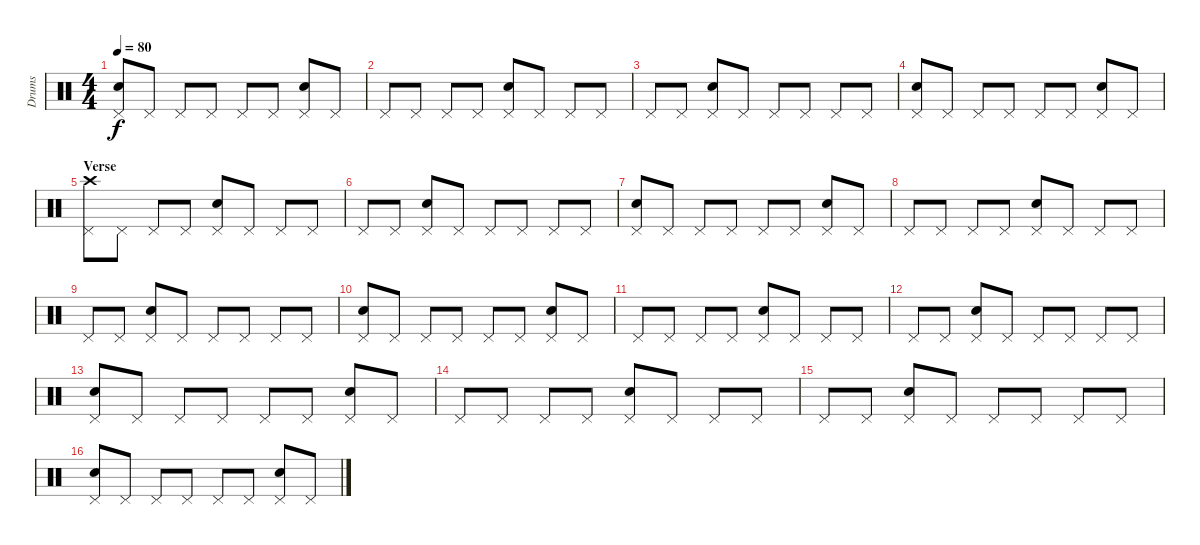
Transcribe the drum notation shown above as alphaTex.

\track ("Drums" "Drums") {instrument percussion}
\staff {score}
\articulation defaults
\ts (4 4)
\tempo 80
\clef neutral
\ks c
("Electric Snare (hit)" "Pedal Hi-Hat (hit)").8{dy f} "Pedal Hi-Hat (hit)".8 "Pedal Hi-Hat (hit)".8 "Pedal Hi-Hat (hit)".8 "Pedal Hi-Hat (hit)".8 "Pedal Hi-Hat (hit)".8 ("Electric Snare (hit)" "Pedal Hi-Hat (hit)").8 "Pedal Hi-Hat (hit)".8 |
"Pedal Hi-Hat (hit)".8 "Pedal Hi-Hat (hit)".8 "Pedal Hi-Hat (hit)".8 "Pedal Hi-Hat (hit)".8 ("Electric Snare (hit)" "Pedal Hi-Hat (hit)").8 "Pedal Hi-Hat (hit)".8 "Pedal Hi-Hat (hit)".8 "Pedal Hi-Hat (hit)".8 |
"Pedal Hi-Hat (hit)".8 "Pedal Hi-Hat (hit)".8 ("Electric Snare (hit)" "Pedal Hi-Hat (hit)").8 "Pedal Hi-Hat (hit)".8 "Pedal Hi-Hat (hit)".8 "Pedal Hi-Hat (hit)".8 "Pedal Hi-Hat (hit)".8 "Pedal Hi-Hat (hit)".8 |
("Electric Snare (hit)" "Pedal Hi-Hat (hit)").8 "Pedal Hi-Hat (hit)".8 "Pedal Hi-Hat (hit)".8 "Pedal Hi-Hat (hit)".8 "Pedal Hi-Hat (hit)".8 "Pedal Hi-Hat (hit)".8 ("Electric Snare (hit)" "Pedal Hi-Hat (hit)").8 "Pedal Hi-Hat (hit)".8 |
\section ("" "Verse")
("Crash high (hit)" "Pedal Hi-Hat (hit)").8 "Pedal Hi-Hat (hit)".8 "Pedal Hi-Hat (hit)".8 "Pedal Hi-Hat (hit)".8 ("Electric Snare (hit)" "Pedal Hi-Hat (hit)").8 "Pedal Hi-Hat (hit)".8 "Pedal Hi-Hat (hit)".8 "Pedal Hi-Hat (hit)".8 |
"Pedal Hi-Hat (hit)".8 "Pedal Hi-Hat (hit)".8 ("Electric Snare (hit)" "Pedal Hi-Hat (hit)").8 "Pedal Hi-Hat (hit)".8 "Pedal Hi-Hat (hit)".8 "Pedal Hi-Hat (hit)".8 "Pedal Hi-Hat (hit)".8 "Pedal Hi-Hat (hit)".8 |
("Electric Snare (hit)" "Pedal Hi-Hat (hit)").8 "Pedal Hi-Hat (hit)".8 "Pedal Hi-Hat (hit)".8 "Pedal Hi-Hat (hit)".8 "Pedal Hi-Hat (hit)".8 "Pedal Hi-Hat (hit)".8 ("Electric Snare (hit)" "Pedal Hi-Hat (hit)").8 "Pedal Hi-Hat (hit)".8 |
"Pedal Hi-Hat (hit)".8 "Pedal Hi-Hat (hit)".8 "Pedal Hi-Hat (hit)".8 "Pedal Hi-Hat (hit)".8 ("Electric Snare (hit)" "Pedal Hi-Hat (hit)").8 "Pedal Hi-Hat (hit)".8 "Pedal Hi-Hat (hit)".8 "Pedal Hi-Hat (hit)".8 |
"Pedal Hi-Hat (hit)".8 "Pedal Hi-Hat (hit)".8 ("Electric Snare (hit)" "Pedal Hi-Hat (hit)").8 "Pedal Hi-Hat (hit)".8 "Pedal Hi-Hat (hit)".8 "Pedal Hi-Hat (hit)".8 "Pedal Hi-Hat (hit)".8 "Pedal Hi-Hat (hit)".8 |
("Electric Snare (hit)" "Pedal Hi-Hat (hit)").8 "Pedal Hi-Hat (hit)".8 "Pedal Hi-Hat (hit)".8 "Pedal Hi-Hat (hit)".8 "Pedal Hi-Hat (hit)".8 "Pedal Hi-Hat (hit)".8 ("Electric Snare (hit)" "Pedal Hi-Hat (hit)").8 "Pedal Hi-Hat (hit)".8 |
"Pedal Hi-Hat (hit)".8 "Pedal Hi-Hat (hit)".8 "Pedal Hi-Hat (hit)".8 "Pedal Hi-Hat (hit)".8 ("Electric Snare (hit)" "Pedal Hi-Hat (hit)").8 "Pedal Hi-Hat (hit)".8 "Pedal Hi-Hat (hit)".8 "Pedal Hi-Hat (hit)".8 |
"Pedal Hi-Hat (hit)".8 "Pedal Hi-Hat (hit)".8 ("Electric Snare (hit)" "Pedal Hi-Hat (hit)").8 "Pedal Hi-Hat (hit)".8 "Pedal Hi-Hat (hit)".8 "Pedal Hi-Hat (hit)".8 "Pedal Hi-Hat (hit)".8 "Pedal Hi-Hat (hit)".8 |
("Electric Snare (hit)" "Pedal Hi-Hat (hit)").8 "Pedal Hi-Hat (hit)".8 "Pedal Hi-Hat (hit)".8 "Pedal Hi-Hat (hit)".8 "Pedal Hi-Hat (hit)".8 "Pedal Hi-Hat (hit)".8 ("Electric Snare (hit)" "Pedal Hi-Hat (hit)").8 "Pedal Hi-Hat (hit)".8 |
"Pedal Hi-Hat (hit)".8 "Pedal Hi-Hat (hit)".8 "Pedal Hi-Hat (hit)".8 "Pedal Hi-Hat (hit)".8 ("Electric Snare (hit)" "Pedal Hi-Hat (hit)").8 "Pedal Hi-Hat (hit)".8 "Pedal Hi-Hat (hit)".8 "Pedal Hi-Hat (hit)".8 |
"Pedal Hi-Hat (hit)".8 "Pedal Hi-Hat (hit)".8 ("Electric Snare (hit)" "Pedal Hi-Hat (hit)").8 "Pedal Hi-Hat (hit)".8 "Pedal Hi-Hat (hit)".8 "Pedal Hi-Hat (hit)".8 "Pedal Hi-Hat (hit)".8 "Pedal Hi-Hat (hit)".8 |
("Electric Snare (hit)" "Pedal Hi-Hat (hit)").8 "Pedal Hi-Hat (hit)".8 "Pedal Hi-Hat (hit)".8 "Pedal Hi-Hat (hit)".8 "Pedal Hi-Hat (hit)".8 "Pedal Hi-Hat (hit)".8 ("Electric Snare (hit)" "Pedal Hi-Hat (hit)").8 "Pedal Hi-Hat (hit)".8
